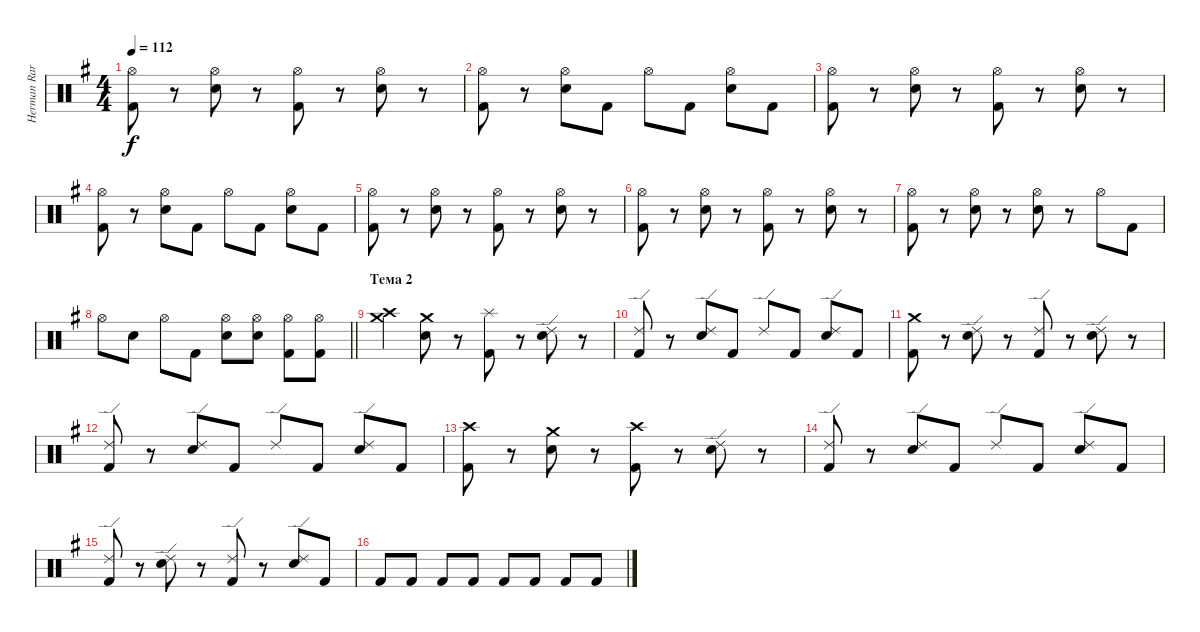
\track ("Herman Rarebell" "Herman Rar") {instrument percussion}
\staff {score}
\articulation defaults
\ts (4 4)
\tempo 112
\clef neutral
\ks eminor
("Hi-Hat (open)" "Kick (hit) 2").8{dy f} r.8 ("Hi-Hat (open)" "Electric Snare (hit)").8 r.8 ("Hi-Hat (open)" "Kick (hit) 2").8 r.8 ("Hi-Hat (open)" "Electric Snare (hit)").8 r.8 |
("Hi-Hat (open)" "Kick (hit) 2").8 r.8 ("Hi-Hat (open)" "Electric Snare (hit)").8 "Kick (hit) 2".8 "Hi-Hat (open)".8 "Kick (hit) 2".8 ("Hi-Hat (open)" "Electric Snare (hit)").8 "Kick (hit) 2".8 |
("Hi-Hat (open)" "Kick (hit) 2").8 r.8 ("Hi-Hat (open)" "Electric Snare (hit)").8 r.8 ("Hi-Hat (open)" "Kick (hit) 2").8 r.8 ("Hi-Hat (open)" "Electric Snare (hit)").8 r.8 |
("Hi-Hat (open)" "Kick (hit) 2").8 r.8 ("Hi-Hat (open)" "Electric Snare (hit)").8 "Kick (hit) 2".8 "Hi-Hat (open)".8 "Kick (hit) 2".8 ("Hi-Hat (open)" "Electric Snare (hit)").8 "Kick (hit) 2".8 |
("Hi-Hat (open)" "Kick (hit) 2").8 r.8 ("Hi-Hat (open)" "Electric Snare (hit)").8 r.8 ("Hi-Hat (open)" "Kick (hit) 2").8 r.8 ("Hi-Hat (open)" "Electric Snare (hit)").8 r.8 |
("Hi-Hat (open)" "Kick (hit) 2").8 r.8 ("Hi-Hat (open)" "Electric Snare (hit)").8 r.8 ("Hi-Hat (open)" "Kick (hit) 2").8 r.8 ("Hi-Hat (open)" "Electric Snare (hit)").8 r.8 |
("Hi-Hat (open)" "Kick (hit) 2").8 r.8 ("Hi-Hat (open)" "Electric Snare (hit)").8 r.8 ("Hi-Hat (open)" "Electric Snare (hit)").8 r.8 "Hi-Hat (open)".8 "Kick (hit) 2".8 |
\barLineRight lightlight "Hi-Hat (open)".8 "Electric Snare (hit)".8 "Hi-Hat (open)".8 "Kick (hit) 2".8
("Hi-Hat (open)" "Electric Snare (hit)").8 ("Hi-Hat (open)" "Electric Snare (hit)").8 ("Hi-Hat (open)" "Kick (hit) 2").8 ("Hi-Hat (open)" "Kick (hit) 2").8 |
\section ("" "Тема 2")
("Crash high (hit)" "Crash medium (hit)").4 ("Crash medium (hit)" "Electric Snare (hit)").8 r.8 ("Splash (hit)" "Kick (hit) 2").8 r.8 ("Ride (edge) 2" "Electric Snare (hit)").8 r.8 |
("Ride (edge) 2" "Kick (hit) 2").8 r.8 ("Ride (edge) 2" "Electric Snare (hit)").8 "Kick (hit) 2".8 "Ride (edge) 2".8 "Kick (hit) 2".8 ("Ride (edge) 2" "Electric Snare (hit)").8 "Kick (hit) 2".8 |
("Crash medium (hit)" "Kick (hit) 2").8 r.8 ("Ride (edge) 2" "Electric Snare (hit)").8 r.8 ("Ride (edge) 2" "Kick (hit) 2").8 r.8 ("Ride (edge) 2" "Electric Snare (hit)").8 r.8 |
("Ride (edge) 2" "Kick (hit) 2").8 r.8 ("Ride (edge) 2" "Electric Snare (hit)").8 "Kick (hit) 2".8 "Ride (edge) 2".8 "Kick (hit) 2".8 ("Ride (edge) 2" "Electric Snare (hit)").8 "Kick (hit) 2".8 |
("Crash high (hit)" "Kick (hit) 2").8 r.8 ("Crash medium (hit)" "Electric Snare (hit)").8 r.8 ("Crash high (hit)" "Kick (hit) 2").8 r.8 ("Ride (edge) 2" "Electric Snare (hit)").8 r.8 |
("Ride (edge) 2" "Kick (hit) 2").8 r.8 ("Ride (edge) 2" "Electric Snare (hit)").8 "Kick (hit) 2".8 "Ride (edge) 2".8 "Kick (hit) 2".8 ("Ride (edge) 2" "Electric Snare (hit)").8 "Kick (hit) 2".8 |
("Ride (edge) 2" "Kick (hit) 2").8 r.8 ("Ride (edge) 2" "Electric Snare (hit)").8 r.8 ("Ride (edge) 2" "Kick (hit) 2").8 r.8 ("Ride (edge) 2" "Electric Snare (hit)").8 "Kick (hit) 2".8 |
"Kick (hit) 2".8 "Kick (hit) 2".8 "Kick (hit) 2".8 "Kick (hit) 2".8 "Kick (hit) 2".8 "Kick (hit) 2".8 "Kick (hit) 2".8 "Kick (hit) 2".8
